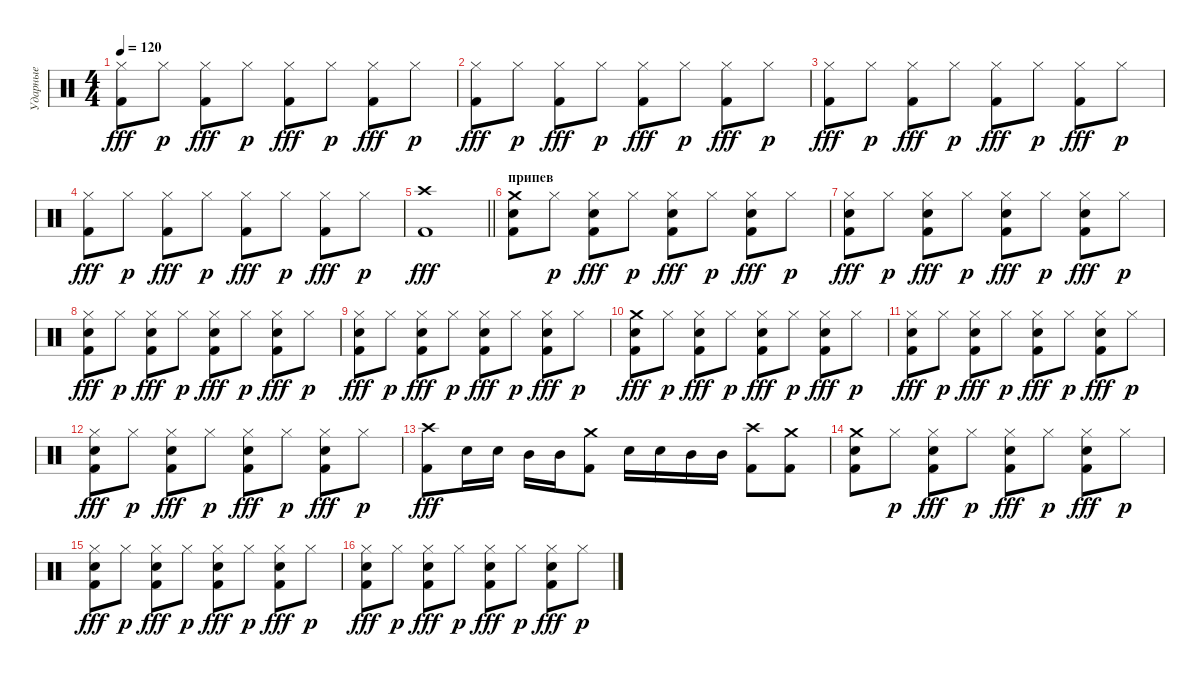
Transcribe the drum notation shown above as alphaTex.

\track ("Ударные" "Ударные") {instrument percussion}
\staff {score}
\articulation defaults
\ts (4 4)
\tempo 120
\clef neutral
\ks c
("Hi-Hat (closed)" "Kick (hit) 2").8{dy fff} "Hi-Hat (closed)".8{dy p} ("Hi-Hat (closed)" "Kick (hit) 2").8{dy fff} "Hi-Hat (closed)".8{dy p} ("Hi-Hat (closed)" "Kick (hit) 2").8{dy fff} "Hi-Hat (closed)".8{dy p} ("Hi-Hat (closed)" "Kick (hit) 2").8{dy fff} "Hi-Hat (closed)".8{dy p} |
("Hi-Hat (closed)" "Kick (hit) 2").8{dy fff} "Hi-Hat (closed)".8{dy p} ("Hi-Hat (closed)" "Kick (hit) 2").8{dy fff} "Hi-Hat (closed)".8{dy p} ("Hi-Hat (closed)" "Kick (hit) 2").8{dy fff} "Hi-Hat (closed)".8{dy p} ("Hi-Hat (closed)" "Kick (hit) 2").8{dy fff} "Hi-Hat (closed)".8{dy p} |
("Hi-Hat (closed)" "Kick (hit) 2").8{dy fff} "Hi-Hat (closed)".8{dy p} ("Hi-Hat (closed)" "Kick (hit) 2").8{dy fff} "Hi-Hat (closed)".8{dy p} ("Hi-Hat (closed)" "Kick (hit) 2").8{dy fff} "Hi-Hat (closed)".8{dy p} ("Hi-Hat (closed)" "Kick (hit) 2").8{dy fff} "Hi-Hat (closed)".8{dy p} |
("Hi-Hat (closed)" "Kick (hit) 2").8{dy fff} "Hi-Hat (closed)".8{dy p} ("Hi-Hat (closed)" "Kick (hit) 2").8{dy fff} "Hi-Hat (closed)".8{dy p} ("Hi-Hat (closed)" "Kick (hit) 2").8{dy fff} "Hi-Hat (closed)".8{dy p} ("Hi-Hat (closed)" "Kick (hit) 2").8{dy fff} "Hi-Hat (closed)".8{dy p} |
\barLineRight lightlight
("Crash high (hit)" "Kick (hit) 2").1{dy fff} |
\section ("" "припев")
("Crash medium (hit)" "Snare (hit) 2" "Kick (hit) 2").8 "Hi-Hat (closed)".8{dy p} ("Hi-Hat (closed)" "Snare (hit) 2" "Kick (hit) 2").8{dy fff} "Hi-Hat (closed)".8{dy p} ("Hi-Hat (closed)" "Snare (hit) 2" "Kick (hit) 2").8{dy fff} "Hi-Hat (closed)".8{dy p} ("Hi-Hat (closed)" "Snare (hit) 2" "Kick (hit) 2").8{dy fff} "Hi-Hat (closed)".8{dy p} |
("Hi-Hat (closed)" "Snare (hit) 2" "Kick (hit) 2").8{dy fff} "Hi-Hat (closed)".8{dy p} ("Hi-Hat (closed)" "Snare (hit) 2" "Kick (hit) 2").8{dy fff} "Hi-Hat (closed)".8{dy p} ("Hi-Hat (closed)" "Snare (hit) 2" "Kick (hit) 2").8{dy fff} "Hi-Hat (closed)".8{dy p} ("Hi-Hat (closed)" "Snare (hit) 2" "Kick (hit) 2").8{dy fff} "Hi-Hat (closed)".8{dy p} |
("Hi-Hat (closed)" "Snare (hit) 2" "Kick (hit) 2").8{dy fff} "Hi-Hat (closed)".8{dy p} ("Hi-Hat (closed)" "Snare (hit) 2" "Kick (hit) 2").8{dy fff} "Hi-Hat (closed)".8{dy p} ("Hi-Hat (closed)" "Snare (hit) 2" "Kick (hit) 2").8{dy fff} "Hi-Hat (closed)".8{dy p} ("Hi-Hat (closed)" "Snare (hit) 2" "Kick (hit) 2").8{dy fff} "Hi-Hat (closed)".8{dy p} |
("Hi-Hat (closed)" "Snare (hit) 2" "Kick (hit) 2").8{dy fff} "Hi-Hat (closed)".8{dy p} ("Hi-Hat (closed)" "Snare (hit) 2" "Kick (hit) 2").8{dy fff} "Hi-Hat (closed)".8{dy p} ("Hi-Hat (closed)" "Snare (hit) 2" "Kick (hit) 2").8{dy fff} "Hi-Hat (closed)".8{dy p} ("Hi-Hat (closed)" "Snare (hit) 2" "Kick (hit) 2").8{dy fff} "Hi-Hat (closed)".8{dy p} |
("Crash medium (hit)" "Snare (hit) 2" "Kick (hit) 2").8{dy fff} "Hi-Hat (closed)".8{dy p} ("Hi-Hat (closed)" "Snare (hit) 2" "Kick (hit) 2").8{dy fff} "Hi-Hat (closed)".8{dy p} ("Hi-Hat (closed)" "Snare (hit) 2" "Kick (hit) 2").8{dy fff} "Hi-Hat (closed)".8{dy p} ("Hi-Hat (closed)" "Snare (hit) 2" "Kick (hit) 2").8{dy fff} "Hi-Hat (closed)".8{dy p} |
("Hi-Hat (closed)" "Snare (hit) 2" "Kick (hit) 2").8{dy fff} "Hi-Hat (closed)".8{dy p} ("Hi-Hat (closed)" "Snare (hit) 2" "Kick (hit) 2").8{dy fff} "Hi-Hat (closed)".8{dy p} ("Hi-Hat (closed)" "Snare (hit) 2" "Kick (hit) 2").8{dy fff} "Hi-Hat (closed)".8{dy p} ("Hi-Hat (closed)" "Snare (hit) 2" "Kick (hit) 2").8{dy fff} "Hi-Hat (closed)".8{dy p} |
("Hi-Hat (closed)" "Snare (hit) 2" "Kick (hit) 2").8{dy fff} "Hi-Hat (closed)".8{dy p} ("Hi-Hat (closed)" "Snare (hit) 2" "Kick (hit) 2").8{dy fff} "Hi-Hat (closed)".8{dy p} ("Hi-Hat (closed)" "Snare (hit) 2" "Kick (hit) 2").8{dy fff} "Hi-Hat (closed)".8{dy p} ("Hi-Hat (closed)" "Snare (hit) 2" "Kick (hit) 2").8{dy fff} "Hi-Hat (closed)".8{dy p} |
("Crash high (hit)" "Kick (hit) 2").8{dy fff} "Snare (hit) 2".16 "Snare (hit) 2".16 "Mid Tom (hit)".16 "Mid Tom (hit)".16 ("Crash medium (hit)" "Kick (hit) 2").8 "Snare (hit) 2".16 "Snare (hit) 2".16 "Mid Tom (hit)".16 "Mid Tom (hit)".16 ("Crash high (hit)" "Kick (hit) 2").8 ("Crash medium (hit)" "Kick (hit) 2").8 |
("Crash medium (hit)" "Snare (hit) 2" "Kick (hit) 2").8 "Hi-Hat (closed)".8{dy p} ("Hi-Hat (closed)" "Snare (hit) 2" "Kick (hit) 2").8{dy fff} "Hi-Hat (closed)".8{dy p} ("Hi-Hat (closed)" "Snare (hit) 2" "Kick (hit) 2").8{dy fff} "Hi-Hat (closed)".8{dy p} ("Hi-Hat (closed)" "Snare (hit) 2" "Kick (hit) 2").8{dy fff} "Hi-Hat (closed)".8{dy p} |
("Hi-Hat (closed)" "Snare (hit) 2" "Kick (hit) 2").8{dy fff} "Hi-Hat (closed)".8{dy p} ("Hi-Hat (closed)" "Snare (hit) 2" "Kick (hit) 2").8{dy fff} "Hi-Hat (closed)".8{dy p} ("Hi-Hat (closed)" "Snare (hit) 2" "Kick (hit) 2").8{dy fff} "Hi-Hat (closed)".8{dy p} ("Hi-Hat (closed)" "Snare (hit) 2" "Kick (hit) 2").8{dy fff} "Hi-Hat (closed)".8{dy p} |
("Hi-Hat (closed)" "Snare (hit) 2" "Kick (hit) 2").8{dy fff} "Hi-Hat (closed)".8{dy p} ("Hi-Hat (closed)" "Snare (hit) 2" "Kick (hit) 2").8{dy fff} "Hi-Hat (closed)".8{dy p} ("Hi-Hat (closed)" "Snare (hit) 2" "Kick (hit) 2").8{dy fff} "Hi-Hat (closed)".8{dy p} ("Hi-Hat (closed)" "Snare (hit) 2" "Kick (hit) 2").8{dy fff} "Hi-Hat (closed)".8{dy p}
